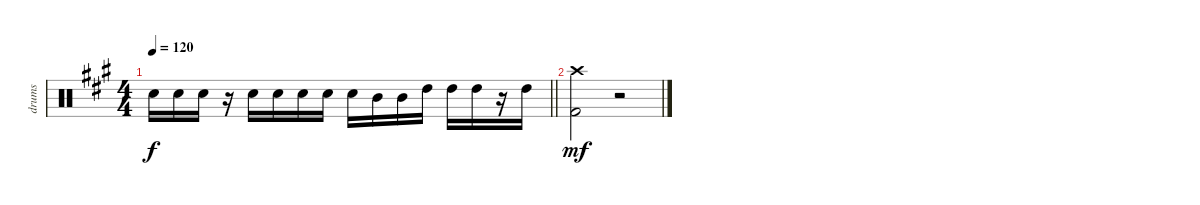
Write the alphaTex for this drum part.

\track ("drums" "drums") {instrument percussion}
\staff {score}
\articulation defaults
\ts (4 4)
\tempo 120
\clef neutral
\barLineRight lightlight
\ks a "Electric Snare (hit)".16{dy f} "Electric Snare (hit)".16 "Electric Snare (hit)".16
r.16 "Electric Snare (hit)".16 "Electric Snare (hit)".16 "Electric Snare (hit)".16 "Electric Snare (hit)".16 "Electric Snare (hit)".16 "Mid Tom (hit)".16 "Mid Tom (hit)".16 "High Tom (hit)".16 "High Tom (hit)".16 "High Tom (hit)".16 r.16 "High Tom (hit)".16 |
("Crash high (hit)" "Kick (hit) 2").2{dy mf} r.2
